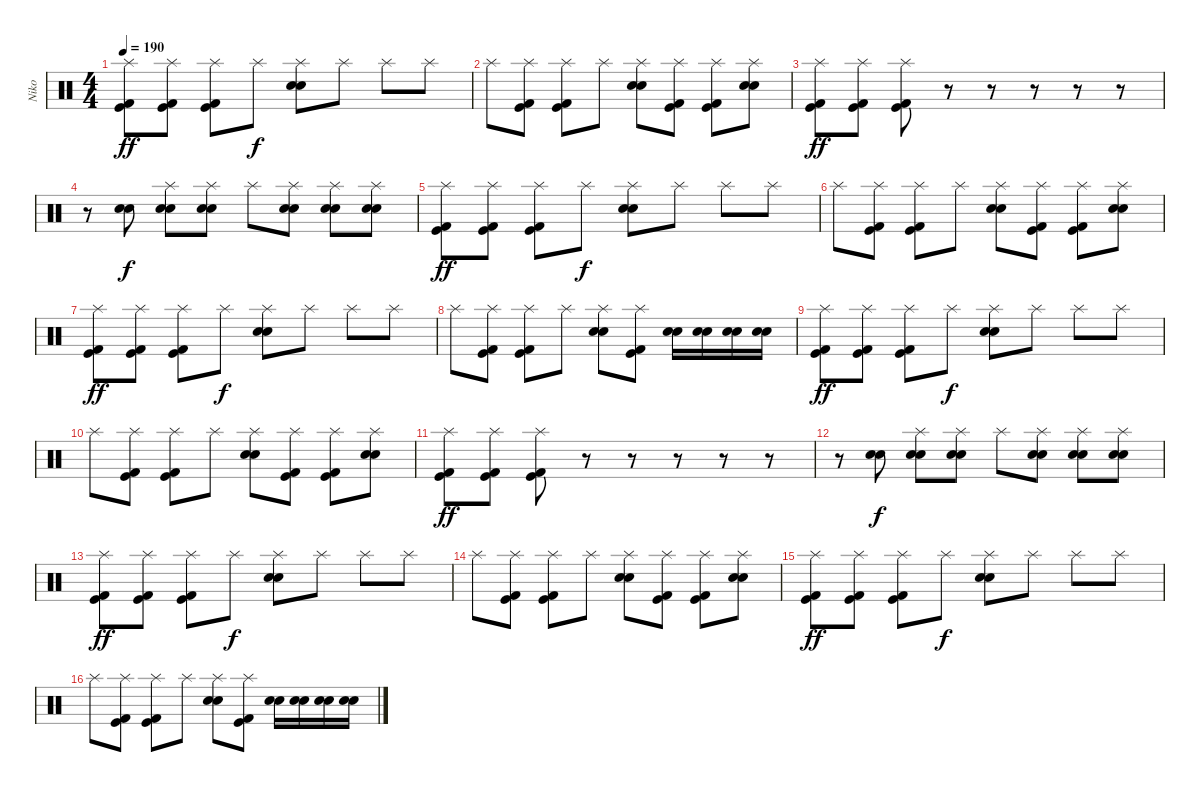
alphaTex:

\track ("Niko" "Niko") {instrument percussion}
\staff {score}
\articulation defaults
\ts (4 4)
\tempo 190
\clef neutral
\ks c
("Splash (hit)" "Kick (hit) 2" "Kick (hit)").8{dy ff} ("Splash (hit)" "Kick (hit)" "Kick (hit) 2").8 ("Splash (hit)" "Kick (hit)" "Kick (hit) 2").8 "Splash (hit)".8{dy f} ("Splash (hit)" "Electric Snare (hit)" "Electric Snare (hit)").8 "Splash (hit)".8 "Splash (hit)".8 "Splash (hit)".8 |
"Splash (hit)".8 ("Splash (hit)" "Kick (hit) 2" "Kick (hit)").8 ("Splash (hit)" "Kick (hit)" "Kick (hit) 2").8 "Splash (hit)".8 ("Splash (hit)" "Electric Snare (hit)" "Electric Snare (hit)").8 ("Splash (hit)" "Kick (hit) 2" "Kick (hit)").8 ("Splash (hit)" "Kick (hit) 2" "Kick (hit)").8 ("Splash (hit)" "Electric Snare (hit)" "Electric Snare (hit)").8 |
("Splash (hit)" "Kick (hit) 2" "Kick (hit)").8{dy ff} ("Splash (hit)" "Kick (hit)" "Kick (hit) 2").8 ("Splash (hit)" "Kick (hit)" "Kick (hit) 2").8 r.8 r.8 r.8 r.8 r.8 |
r.8 ("Electric Snare (hit)" "Electric Snare (hit)").8{dy f} ("Splash (hit)" "Electric Snare (hit)" "Electric Snare (hit)").8 ("Splash (hit)" "Electric Snare (hit)" "Electric Snare (hit)").8 "Splash (hit)".8 ("Splash (hit)" "Electric Snare (hit)" "Electric Snare (hit)").8 ("Splash (hit)" "Electric Snare (hit)" "Electric Snare (hit)").8 ("Splash (hit)" "Electric Snare (hit)" "Electric Snare (hit)").8 |
("Splash (hit)" "Kick (hit) 2" "Kick (hit)").8{dy ff} ("Splash (hit)" "Kick (hit)" "Kick (hit) 2").8 ("Splash (hit)" "Kick (hit)" "Kick (hit) 2").8 "Splash (hit)".8{dy f} ("Splash (hit)" "Electric Snare (hit)" "Electric Snare (hit)").8 "Splash (hit)".8 "Splash (hit)".8 "Splash (hit)".8 |
"Splash (hit)".8 ("Splash (hit)" "Kick (hit) 2" "Kick (hit)").8 ("Splash (hit)" "Kick (hit)" "Kick (hit) 2").8 "Splash (hit)".8 ("Splash (hit)" "Electric Snare (hit)" "Electric Snare (hit)").8 ("Splash (hit)" "Kick (hit) 2" "Kick (hit)").8 ("Splash (hit)" "Kick (hit) 2" "Kick (hit)").8 ("Splash (hit)" "Electric Snare (hit)" "Electric Snare (hit)").8 |
("Splash (hit)" "Kick (hit) 2" "Kick (hit)").8{dy ff} ("Splash (hit)" "Kick (hit)" "Kick (hit) 2").8 ("Splash (hit)" "Kick (hit)" "Kick (hit) 2").8 "Splash (hit)".8{dy f} ("Splash (hit)" "Electric Snare (hit)" "Electric Snare (hit)").8 "Splash (hit)".8 "Splash (hit)".8 "Splash (hit)".8 |
"Splash (hit)".8 ("Splash (hit)" "Kick (hit) 2" "Kick (hit)").8 ("Splash (hit)" "Kick (hit)" "Kick (hit) 2").8 "Splash (hit)".8 ("Splash (hit)" "Electric Snare (hit)" "Electric Snare (hit)").8 ("Splash (hit)" "Kick (hit) 2" "Kick (hit)").8 ("Electric Snare (hit)" "Electric Snare (hit)").16 ("Electric Snare (hit)" "Electric Snare (hit)").16 ("Electric Snare (hit)" "Electric Snare (hit)").16 ("Electric Snare (hit)" "Electric Snare (hit)").16 |
("Splash (hit)" "Kick (hit) 2" "Kick (hit)").8{dy ff} ("Splash (hit)" "Kick (hit)" "Kick (hit) 2").8 ("Splash (hit)" "Kick (hit)" "Kick (hit) 2").8 "Splash (hit)".8{dy f} ("Splash (hit)" "Electric Snare (hit)" "Electric Snare (hit)").8 "Splash (hit)".8 "Splash (hit)".8 "Splash (hit)".8 |
"Splash (hit)".8 ("Splash (hit)" "Kick (hit) 2" "Kick (hit)").8 ("Splash (hit)" "Kick (hit)" "Kick (hit) 2").8 "Splash (hit)".8 ("Splash (hit)" "Electric Snare (hit)" "Electric Snare (hit)").8 ("Splash (hit)" "Kick (hit) 2" "Kick (hit)").8 ("Splash (hit)" "Kick (hit) 2" "Kick (hit)").8 ("Splash (hit)" "Electric Snare (hit)" "Electric Snare (hit)").8 |
("Splash (hit)" "Kick (hit) 2" "Kick (hit)").8{dy ff} ("Splash (hit)" "Kick (hit)" "Kick (hit) 2").8 ("Splash (hit)" "Kick (hit)" "Kick (hit) 2").8 r.8 r.8 r.8 r.8 r.8 |
r.8 ("Electric Snare (hit)" "Electric Snare (hit)").8{dy f} ("Splash (hit)" "Electric Snare (hit)" "Electric Snare (hit)").8 ("Splash (hit)" "Electric Snare (hit)" "Electric Snare (hit)").8 "Splash (hit)".8 ("Splash (hit)" "Electric Snare (hit)" "Electric Snare (hit)").8 ("Splash (hit)" "Electric Snare (hit)" "Electric Snare (hit)").8 ("Splash (hit)" "Electric Snare (hit)" "Electric Snare (hit)").8 |
("Splash (hit)" "Kick (hit) 2" "Kick (hit)").8{dy ff} ("Splash (hit)" "Kick (hit)" "Kick (hit) 2").8 ("Splash (hit)" "Kick (hit)" "Kick (hit) 2").8 "Splash (hit)".8{dy f} ("Splash (hit)" "Electric Snare (hit)" "Electric Snare (hit)").8 "Splash (hit)".8 "Splash (hit)".8 "Splash (hit)".8 |
"Splash (hit)".8 ("Splash (hit)" "Kick (hit) 2" "Kick (hit)").8 ("Splash (hit)" "Kick (hit)" "Kick (hit) 2").8 "Splash (hit)".8 ("Splash (hit)" "Electric Snare (hit)" "Electric Snare (hit)").8 ("Splash (hit)" "Kick (hit) 2" "Kick (hit)").8 ("Splash (hit)" "Kick (hit) 2" "Kick (hit)").8 ("Splash (hit)" "Electric Snare (hit)" "Electric Snare (hit)").8 |
("Splash (hit)" "Kick (hit) 2" "Kick (hit)").8{dy ff} ("Splash (hit)" "Kick (hit)" "Kick (hit) 2").8 ("Splash (hit)" "Kick (hit)" "Kick (hit) 2").8 "Splash (hit)".8{dy f} ("Splash (hit)" "Electric Snare (hit)" "Electric Snare (hit)").8 "Splash (hit)".8 "Splash (hit)".8 "Splash (hit)".8 |
"Splash (hit)".8 ("Splash (hit)" "Kick (hit) 2" "Kick (hit)").8 ("Splash (hit)" "Kick (hit)" "Kick (hit) 2").8 "Splash (hit)".8 ("Splash (hit)" "Electric Snare (hit)" "Electric Snare (hit)").8 ("Splash (hit)" "Kick (hit) 2" "Kick (hit)").8 ("Electric Snare (hit)" "Electric Snare (hit)").16 ("Electric Snare (hit)" "Electric Snare (hit)").16 ("Electric Snare (hit)" "Electric Snare (hit)").16 ("Electric Snare (hit)" "Electric Snare (hit)").16
